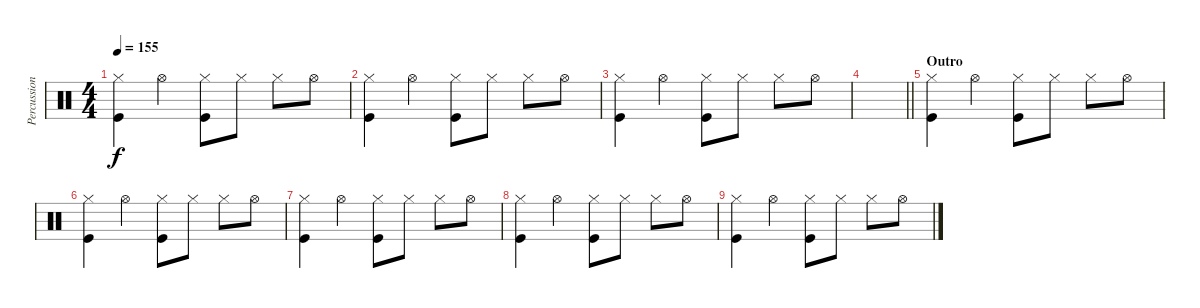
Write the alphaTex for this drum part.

\track ("Percussion" "Percussion") {instrument percussion}
\staff {score}
\articulation defaults
\ts (4 4)
\tempo 155
\clef neutral
\ks c
("Kick (hit)" "Hi-Hat (closed)").4{dy f} "Hi-Hat (open)".4 ("Hi-Hat (closed)" "Kick (hit)").8 "Hi-Hat (closed)".8 "Hi-Hat (closed)".8 "Hi-Hat (open)".8 |
("Kick (hit)" "Hi-Hat (closed)").4 "Hi-Hat (open)".4 ("Hi-Hat (closed)" "Kick (hit)").8 "Hi-Hat (closed)".8 "Hi-Hat (closed)".8 "Hi-Hat (open)".8 |
("Kick (hit)" "Hi-Hat (closed)").4 "Hi-Hat (open)".4 ("Hi-Hat (closed)" "Kick (hit)").8 "Hi-Hat (closed)".8 "Hi-Hat (closed)".8 "Hi-Hat (open)".8 |
\barLineRight lightlight
|
\section ("" "Outro")
("Kick (hit)" "Hi-Hat (closed)").4{volume 0} "Hi-Hat (open)".4 ("Hi-Hat (closed)" "Kick (hit)").8 "Hi-Hat (closed)".8 "Hi-Hat (closed)".8 "Hi-Hat (open)".8 |
("Kick (hit)" "Hi-Hat (closed)").4 "Hi-Hat (open)".4 ("Hi-Hat (closed)" "Kick (hit)").8 "Hi-Hat (closed)".8 "Hi-Hat (closed)".8 "Hi-Hat (open)".8 |
("Kick (hit)" "Hi-Hat (closed)").4 "Hi-Hat (open)".4 ("Hi-Hat (closed)" "Kick (hit)").8 "Hi-Hat (closed)".8 "Hi-Hat (closed)".8 "Hi-Hat (open)".8 |
("Kick (hit)" "Hi-Hat (closed)").4 "Hi-Hat (open)".4 ("Hi-Hat (closed)" "Kick (hit)").8 "Hi-Hat (closed)".8 "Hi-Hat (closed)".8 "Hi-Hat (open)".8 |
("Kick (hit)" "Hi-Hat (closed)").4 "Hi-Hat (open)".4 ("Hi-Hat (closed)" "Kick (hit)").8 "Hi-Hat (closed)".8 "Hi-Hat (closed)".8 "Hi-Hat (open)".8
